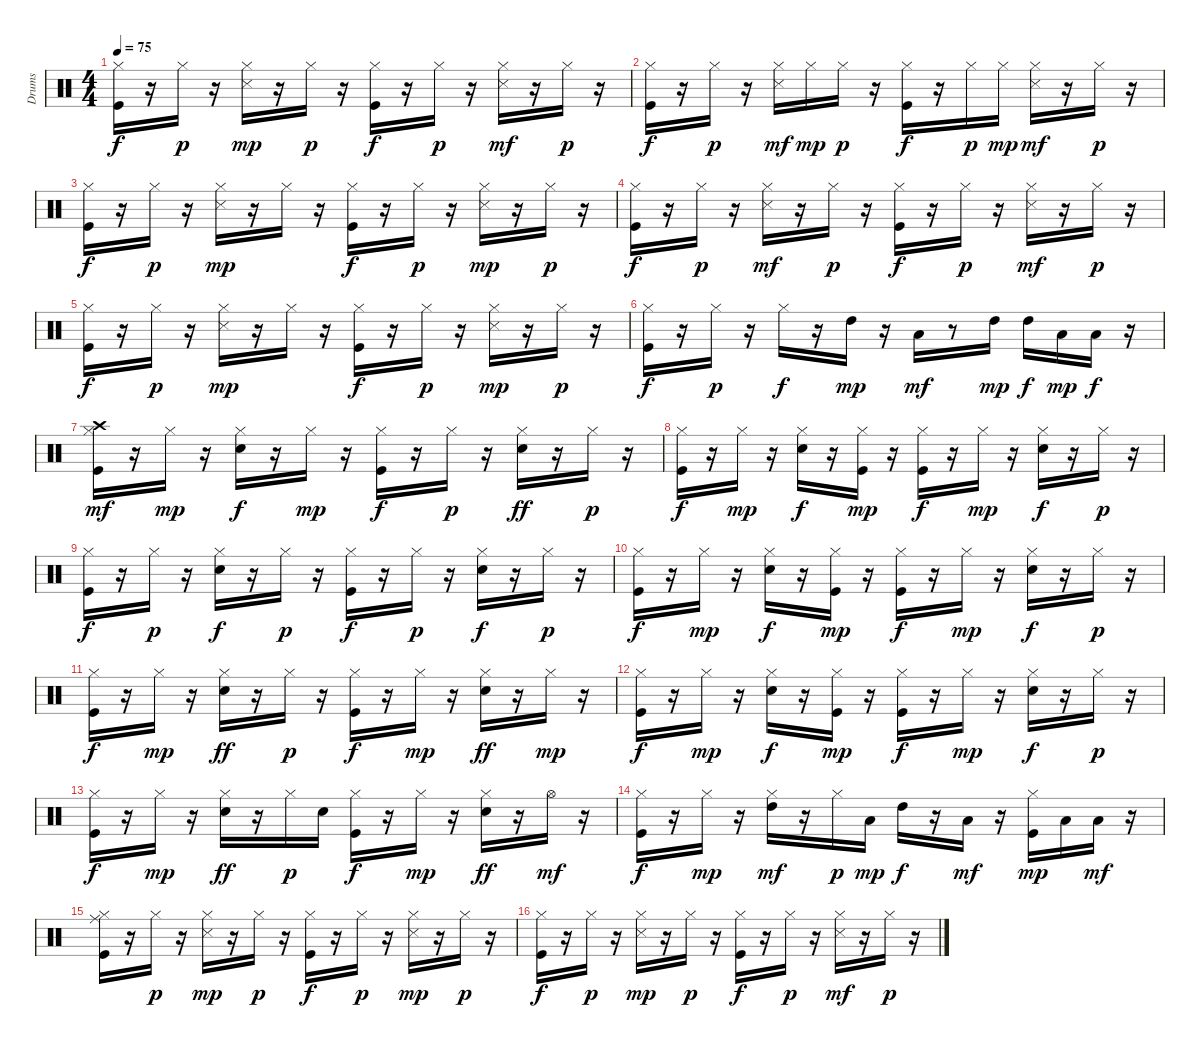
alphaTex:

\track ("Drums   " "Drums   ") {instrument percussion}
\staff {score}
\articulation defaults
\ts (4 4)
\tempo 75
\clef neutral
\ks c
("Kick (hit)" "Hi-Hat (closed)").16{dy f} r.16 "Hi-Hat (closed)".16{dy p} r.16 ("Hi-Hat (closed)" "Snare (side stick) 3").16{dy mp} r.16 "Hi-Hat (closed)".16{dy p} r.16 ("Kick (hit)" "Hi-Hat (closed)").16{dy f} r.16 "Hi-Hat (closed)".16{dy p} r.16 ("Hi-Hat (closed)" "Snare (side stick) 3").16{dy mf} r.16 "Hi-Hat (closed)".16{dy p} r.16 |
("Kick (hit)" "Hi-Hat (closed)").16{dy f} r.16 "Hi-Hat (closed)".16{dy p} r.16 ("Hi-Hat (closed)" "Snare (side stick) 3").16{dy mf} "Hi-Hat (closed)".16{dy mp} "Hi-Hat (closed)".16{dy p} r.16 ("Kick (hit)" "Hi-Hat (closed)").16{dy f} r.16 "Hi-Hat (closed)".16{dy p} "Hi-Hat (closed)".16{dy mp} ("Hi-Hat (closed)" "Snare (side stick) 3").16{dy mf} r.16 "Hi-Hat (closed)".16{dy p} r.16 |
("Kick (hit)" "Hi-Hat (closed)").16{dy f} r.16 "Hi-Hat (closed)".16{dy p} r.16 ("Hi-Hat (closed)" "Snare (side stick) 3").16{dy mp} r.16 "Hi-Hat (closed)".16 r.16 ("Kick (hit)" "Hi-Hat (closed)").16{dy f} r.16 "Hi-Hat (closed)".16{dy p} r.16 ("Hi-Hat (closed)" "Snare (side stick) 3").16{dy mp} r.16 "Hi-Hat (closed)".16{dy p} r.16 |
("Kick (hit)" "Hi-Hat (closed)").16{dy f} r.16 "Hi-Hat (closed)".16{dy p} r.16 ("Hi-Hat (closed)" "Snare (side stick) 3").16{dy mf} r.16 "Hi-Hat (closed)".16{dy p} r.16 ("Kick (hit)" "Hi-Hat (closed)").16{dy f} r.16 "Hi-Hat (closed)".16{dy p} r.16 ("Hi-Hat (closed)" "Snare (side stick) 3").16{dy mf} r.16 "Hi-Hat (closed)".16{dy p} r.16 |
("Kick (hit)" "Hi-Hat (closed)").16{dy f} r.16 "Hi-Hat (closed)".16{dy p} r.16 ("Hi-Hat (closed)" "Snare (side stick) 3").16{dy mp} r.16 "Hi-Hat (closed)".16 r.16 ("Kick (hit)" "Hi-Hat (closed)").16{dy f} r.16 "Hi-Hat (closed)".16{dy p} r.16 ("Hi-Hat (closed)" "Snare (side stick) 3").16{dy mp} r.16 "Hi-Hat (closed)".16{dy p} r.16 |
("Kick (hit)" "Hi-Hat (closed)").16{dy f} r.16 "Hi-Hat (closed)".16{dy p} r.16 "Hi-Hat (closed)".16{dy f} r.16 "High Tom (hit)".16{dy mp} r.16 "Low Tom (hit)".16{dy mf} r.8 "High Tom (hit)".16{dy mp} "High Tom (hit)".16{dy f} "Low Tom (hit)".16{dy mp} "Low Tom (hit)".16{dy f} r.16 |
("Kick (hit)" "Hi-Hat (closed)" "Crash high (hit)").16{dy mf} r.16 "Hi-Hat (closed)".16{dy mp} r.16 ("Snare (hit) 2" "Hi-Hat (closed)").16{dy f} r.16 "Hi-Hat (closed)".16{dy mp} r.16 ("Kick (hit)" "Hi-Hat (closed)").16{dy f} r.16 "Hi-Hat (closed)".16{dy p} r.16 ("Snare (hit) 2" "Hi-Hat (closed)").16{dy ff} r.16 "Hi-Hat (closed)".16{dy p} r.16 |
("Kick (hit)" "Hi-Hat (closed)").16{dy f} r.16 "Hi-Hat (closed)".16{dy mp} r.16 ("Snare (hit) 2" "Hi-Hat (closed)").16{dy f} r.16 ("Kick (hit)" "Hi-Hat (closed)").16{dy mp} r.16 ("Kick (hit)" "Hi-Hat (closed)").16{dy f} r.16 "Hi-Hat (closed)".16{dy mp} r.16 ("Snare (hit) 2" "Hi-Hat (closed)").16{dy f} r.16 "Hi-Hat (closed)".16{dy p} r.16 |
("Kick (hit)" "Hi-Hat (closed)").16{dy f} r.16 "Hi-Hat (closed)".16{dy p} r.16 ("Snare (hit) 2" "Hi-Hat (closed)").16{dy f} r.16 "Hi-Hat (closed)".16{dy p} r.16 ("Kick (hit)" "Hi-Hat (closed)").16{dy f} r.16 "Hi-Hat (closed)".16{dy p} r.16 ("Snare (hit) 2" "Hi-Hat (closed)").16{dy f} r.16 "Hi-Hat (closed)".16{dy p} r.16 |
("Kick (hit)" "Hi-Hat (closed)").16{dy f} r.16 "Hi-Hat (closed)".16{dy mp} r.16 ("Snare (hit) 2" "Hi-Hat (closed)").16{dy f} r.16 ("Kick (hit)" "Hi-Hat (closed)").16{dy mp} r.16 ("Kick (hit)" "Hi-Hat (closed)").16{dy f} r.16 "Hi-Hat (closed)".16{dy mp} r.16 ("Snare (hit) 2" "Hi-Hat (closed)").16{dy f} r.16 "Hi-Hat (closed)".16{dy p} r.16 |
("Kick (hit)" "Hi-Hat (closed)").16{dy f} r.16 "Hi-Hat (closed)".16{dy mp} r.16 ("Snare (hit) 2" "Hi-Hat (closed)").16{dy ff} r.16 "Hi-Hat (closed)".16{dy p} r.16 ("Kick (hit)" "Hi-Hat (closed)").16{dy f} r.16 "Hi-Hat (closed)".16{dy mp} r.16 ("Snare (hit) 2" "Hi-Hat (closed)").16{dy ff} r.16 "Hi-Hat (closed)".16{dy mp} r.16 |
("Kick (hit)" "Hi-Hat (closed)").16{dy f} r.16 "Hi-Hat (closed)".16{dy mp} r.16 ("Snare (hit) 2" "Hi-Hat (closed)").16{dy f} r.16 ("Kick (hit)" "Hi-Hat (closed)").16{dy mp} r.16 ("Kick (hit)" "Hi-Hat (closed)").16{dy f} r.16 "Hi-Hat (closed)".16{dy mp} r.16 ("Snare (hit) 2" "Hi-Hat (closed)").16{dy f} r.16 "Hi-Hat (closed)".16{dy p} r.16 |
("Kick (hit)" "Hi-Hat (closed)").16{dy f} r.16 "Hi-Hat (closed)".16{dy mp} r.16 ("Snare (hit) 2" "Hi-Hat (closed)").16{dy ff} r.16 "Hi-Hat (closed)".16{dy p} "Snare (hit) 2".16 ("Kick (hit)" "Hi-Hat (closed)").16{dy f} r.16 "Hi-Hat (closed)".16{dy mp} r.16 ("Snare (hit) 2" "Hi-Hat (closed)").16{dy ff} r.16 "Hi-Hat (open)".16{dy mf} r.16 |
("Kick (hit)" "Hi-Hat (closed)").16{dy f} r.16 "Hi-Hat (closed)".16{dy mp} r.16 ("Hi-Hat (closed)" "High Tom (hit)").16{dy mf} r.16 "Hi-Hat (closed)".16{dy p} "Low Tom (hit)".16{dy mp} "High Tom (hit)".16{dy f} r.16 "Low Tom (hit)".16{dy mf} r.16 ("Kick (hit)" "Hi-Hat (closed)").16{dy mp} "Low Tom (hit)".16 "Low Floor Tom (hit)".16{dy mf} r.16 |
("Kick (hit)" "Hi-Hat (closed)" "Ride (middle)").16 r.16 "Hi-Hat (closed)".16{dy p} r.16 ("Hi-Hat (closed)" "Snare (side stick) 3").16{dy mp} r.16 "Hi-Hat (closed)".16{dy p} r.16 ("Kick (hit)" "Hi-Hat (closed)").16{dy f} r.16 "Hi-Hat (closed)".16{dy p} r.16 ("Hi-Hat (closed)" "Snare (side stick) 3").16{dy mp} r.16 "Hi-Hat (closed)".16{dy p} r.16 |
("Kick (hit)" "Hi-Hat (closed)").16{dy f} r.16 "Hi-Hat (closed)".16{dy p} r.16 ("Hi-Hat (closed)" "Snare (side stick) 3").16{dy mp} r.16 "Hi-Hat (closed)".16{dy p} r.16 ("Kick (hit)" "Hi-Hat (closed)").16{dy f} r.16 "Hi-Hat (closed)".16{dy p} r.16 ("Hi-Hat (closed)" "Snare (side stick) 3").16{dy mf} r.16 "Hi-Hat (closed)".16{dy p} r.16
